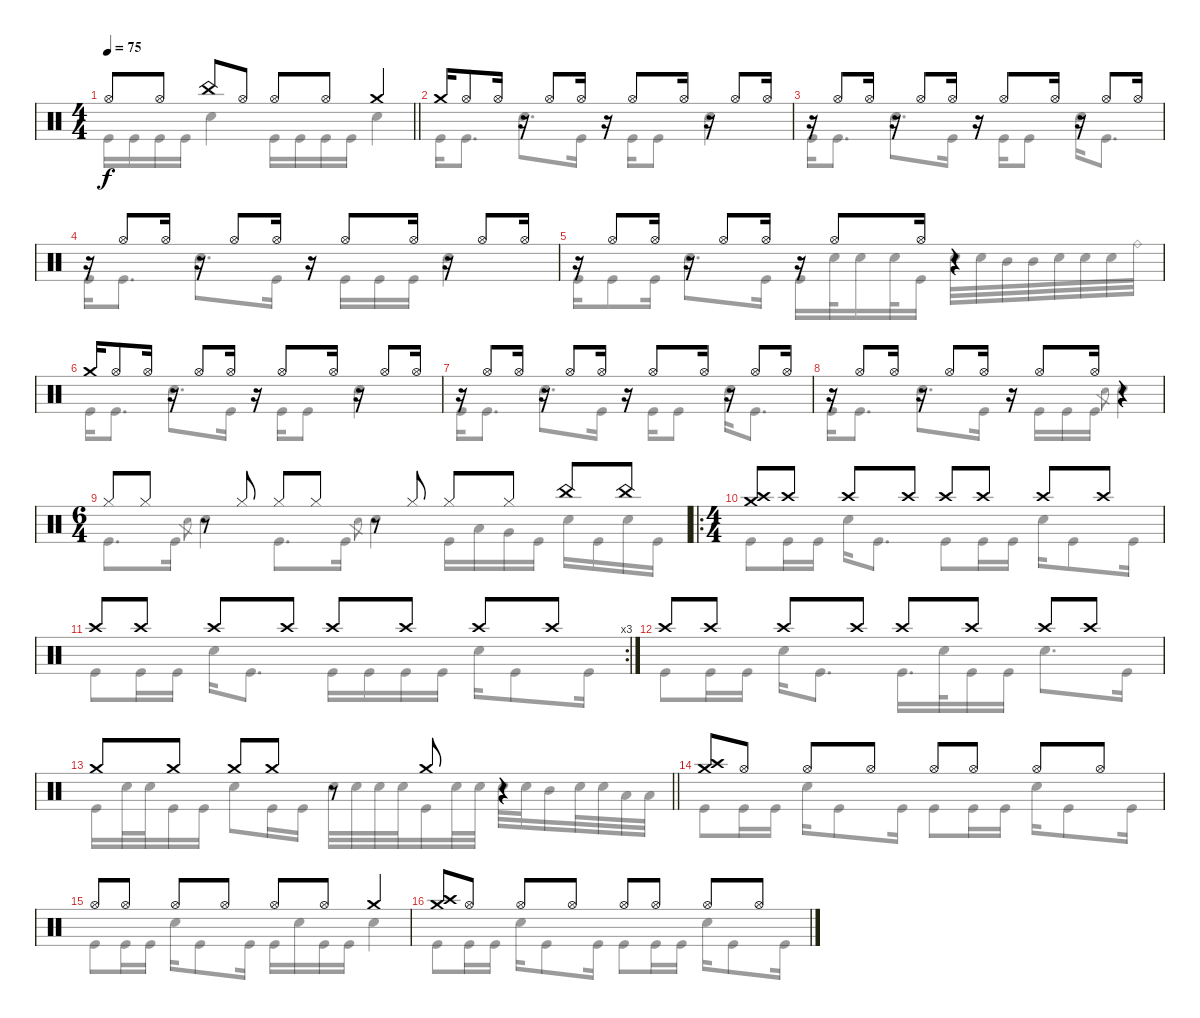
\track "" {instrument percussion}
\staff {score}
\articulation defaults
\voice
\ts (4 4)
\tempo 75
\clef neutral
\barLineRight lightlight
\ks c "Hi-Hat (open)".8{dy f} "Hi-Hat (open)".8 "China (hit)".8 "Hi-Hat (open)".8 "Hi-Hat (open)".8 "Hi-Hat (open)".8 "Crash medium (hit)".4
|
"Crash medium (hit)".16 "Hi-Hat (open)".8 "Hi-Hat (open)".16 r.16 "Hi-Hat (open)".8 "Hi-Hat (open)".16 r.16 "Hi-Hat (open)".8 "Hi-Hat (open)".16 r.16 "Hi-Hat (open)".8 "Hi-Hat (open)".16 |
r.16 "Hi-Hat (open)".8 "Hi-Hat (open)".16 r.16 "Hi-Hat (open)".8 "Hi-Hat (open)".16 r.16 "Hi-Hat (open)".8 "Hi-Hat (open)".16 r.16 "Hi-Hat (open)".8 "Hi-Hat (open)".16 |
r.16 "Hi-Hat (open)".8 "Hi-Hat (open)".16 r.16 "Hi-Hat (open)".8 "Hi-Hat (open)".16 r.16 "Hi-Hat (open)".8 "Hi-Hat (open)".16 r.16 "Hi-Hat (open)".8 "Hi-Hat (open)".16 |
r.16 "Hi-Hat (open)".8 "Hi-Hat (open)".16 r.16 "Hi-Hat (open)".8 "Hi-Hat (open)".16 r.16 "Hi-Hat (open)".8 "Hi-Hat (open)".16 r.4 |
"Crash medium (hit)".16 "Hi-Hat (open)".8 "Hi-Hat (open)".16 r.16 "Hi-Hat (open)".8 "Hi-Hat (open)".16 r.16 "Hi-Hat (open)".8 "Hi-Hat (open)".16 r.16 "Hi-Hat (open)".8 "Hi-Hat (open)".16 |
r.16 "Hi-Hat (open)".8 "Hi-Hat (open)".16 r.16 "Hi-Hat (open)".8 "Hi-Hat (open)".16 r.16 "Hi-Hat (open)".8 "Hi-Hat (open)".16 r.16 "Hi-Hat (open)".8 "Hi-Hat (open)".16 |
r.16 "Hi-Hat (open)".8 "Hi-Hat (open)".16 r.16 "Hi-Hat (open)".8 "Hi-Hat (open)".16 r.16 "Hi-Hat (open)".8 "Hi-Hat (open)".16 r.4 |
\ts (6 4)
"Hi-Hat (closed)".8 "Hi-Hat (closed)".8 r.8 "Hi-Hat (closed)".8{beam split} "Hi-Hat (closed)".8 "Hi-Hat (closed)".8 r.8 "Hi-Hat (closed)".8{beam split} "Hi-Hat (closed)".8 "Hi-Hat (closed)".8{beam split} "China (hit)".8 "China (hit)".8 |
\ro
\ts (4 4)
("Crash high (hit)" "Crash medium (hit)").8 "Crash high (hit)".8 "Crash high (hit)".8 "Crash high (hit)".8 "Crash high (hit)".8 "Crash high (hit)".8 "Crash high (hit)".8 "Crash high (hit)".8 |
\rc 3 "Crash high (hit)".8 "Crash high (hit)".8 "Crash high (hit)".8 "Crash high (hit)".8 "Crash high (hit)".8 "Crash high (hit)".8 "Crash high (hit)".8 "Crash high (hit)".8
|
"Crash high (hit)".8 "Crash high (hit)".8 "Crash high (hit)".8 "Crash high (hit)".8 "Crash high (hit)".8 "Crash high (hit)".8 "Crash high (hit)".8 "Crash high (hit)".8 |
\barLineRight lightlight "Crash medium (hit)".8 "Crash medium (hit)".8 "Crash medium (hit)".8 "Crash medium (hit)".8
r.8 "Crash medium (hit)".8 r.4 |
("Crash medium (hit)" "Crash high (hit)").8 "Hi-Hat (open)".8 "Hi-Hat (open)".8 "Hi-Hat (open)".8 "Hi-Hat (open)".8 "Hi-Hat (open)".8 "Hi-Hat (open)".8 "Hi-Hat (open)".8 |
"Hi-Hat (open)".8 "Hi-Hat (open)".8 "Hi-Hat (open)".8 "Hi-Hat (open)".8 "Hi-Hat (open)".8 "Hi-Hat (open)".8 "Crash medium (hit)".4 |
("Crash medium (hit)" "Crash high (hit)").8 "Hi-Hat (open)".8 "Hi-Hat (open)".8 "Hi-Hat (open)".8 "Hi-Hat (open)".8 "Hi-Hat (open)".8 "Hi-Hat (open)".8 "Hi-Hat (open)".8
\voice
\clef neutral
\ottava regular
\simile none
\barLineRight lightlight
\ks c "Kick (hit)".16{dy f} "Kick (hit)".16 "Kick (hit)".16 "Kick (hit)".16 "Snare (hit) 2".4 "Kick (hit)".16 "Kick (hit)".16 "Kick (hit)".16 "Kick (hit)".16 "Snare (hit) 2".4
|
"Kick (hit)".16 "Kick (hit)".8{d} "Snare (hit) 2".8{d} "Kick (hit)".16 r.16 "Kick (hit)".16 "Kick (hit)".8 "Snare (hit) 2".4 |
"Kick (hit)".16 "Kick (hit)".8{d} "Snare (hit) 2".8{d} "Kick (hit)".16 r.16 "Kick (hit)".16 "Kick (hit)".8 "Snare (hit) 2".16 "Kick (hit)".8{d} |
"Kick (hit)".16 "Kick (hit)".8{d} "Snare (hit) 2".8{d} "Kick (hit)".16 r.16 "Kick (hit)".16 "Kick (hit)".16 "Kick (hit)".16 "Snare (hit) 2".4 |
"Kick (hit)".16 "Kick (hit)".8 "Kick (hit)".16 "Snare (hit) 2".8{d} "Kick (hit)".16 "Kick (hit)".16 "Snare (hit) 2".32 "Snare (hit) 2".16 "Snare (hit) 2".32 "Kick (hit)".16 "Snare (hit) 2".32 "Snare (hit) 2".32 "Mid Tom (hit)".32 "Mid Tom (hit)".32 "Snare (hit) 2".32 "Snare (hit) 2".32 "Snare (hit) 2".32 "Ride (bell)".32 |
"Kick (hit)".16 "Kick (hit)".8{d} "Snare (hit) 2".8{d} "Kick (hit)".16 r.16 "Kick (hit)".16 "Kick (hit)".8 "Snare (hit) 2".4 |
"Kick (hit)".16 "Kick (hit)".8{d} "Snare (hit) 2".8{d} "Kick (hit)".16 r.16 "Kick (hit)".16 "Kick (hit)".8 "Snare (hit) 2".16 "Kick (hit)".8{d} |
"Kick (hit)".16 "Kick (hit)".8{d} "Snare (hit) 2".8{d} "Kick (hit)".16 r.16 "Kick (hit)".16 "Kick (hit)".16 "Kick (hit)".16 "Snare (hit) 2".8{gr} "Snare (hit) 2".4 |
"Kick (hit)".8{d} "Kick (hit)".16 "Snare (hit) 2".8{gr} "Snare (hit) 2".4 "Kick (hit)".8{d} "Kick (hit)".16 "Snare (hit) 2".8{gr} "Snare (hit) 2".4 "Kick (hit)".16 "Low Tom (hit)".16 "Very Low Tom (hit)".16 "Kick (hit)".16{beam split} "Snare (hit) 2".16 "Kick (hit)".16 "Snare (hit) 2".16 "Kick (hit)".16 |
"Kick (hit)".8 "Kick (hit)".16 "Kick (hit)".16 "Snare (hit) 2".16 "Kick (hit)".8{d} "Kick (hit)".8 "Kick (hit)".16 "Kick (hit)".16 "Snare (hit) 2".16 "Kick (hit)".8 "Kick (hit)".16 |
"Kick (hit)".8 "Kick (hit)".16 "Kick (hit)".16 "Snare (hit) 2".16 "Kick (hit)".8{d} "Kick (hit)".16 "Kick (hit)".16 "Kick (hit)".16 "Kick (hit)".16 "Snare (hit) 2".16 "Kick (hit)".8 "Kick (hit)".16 |
"Kick (hit)".8 "Kick (hit)".16 "Kick (hit)".16 "Snare (hit) 2".16 "Kick (hit)".8{d} "Kick (hit)".16{d} "Snare (hit) 2".32 "Kick (hit)".16 "Kick (hit)".16 "Snare (hit) 2".8{d} "Kick (hit)".16 |
\barLineRight lightlight "Kick (hit)".16 "Snare (hit) 2".32 "Snare (hit) 2".32 "Kick (hit)".16 "Kick (hit)".16 "Snare (hit) 2".8 "Kick (hit)".16 "Kick (hit)".16 "Snare (hit) 2".32 "Snare (hit) 2".32 "Snare (hit) 2".32 "Snare (hit) 2".32 "Kick (hit)".16 "Snare (hit) 2".32 "Snare (hit) 2".32 "Snare (hit) 2".32 "Snare (hit) 2".32 "Mid Tom (hit)".16 "Snare (hit) 2".32 "Snare (hit) 2".32 "Low Tom (hit)".32 "Low Tom (hit)".32
|
"Kick (hit)".8 "Kick (hit)".16 "Kick (hit)".16 "Snare (hit) 2".16 "Kick (hit)".8 "Kick (hit)".16 "Kick (hit)".8 "Kick (hit)".16 "Kick (hit)".16 "Snare (hit) 2".16 "Kick (hit)".8 "Kick (hit)".16 |
"Kick (hit)".8 "Kick (hit)".16 "Kick (hit)".16 "Snare (hit) 2".16 "Kick (hit)".8 "Kick (hit)".16 "Kick (hit)".16 "Snare (hit) 2".16 "Kick (hit)".16 "Kick (hit)".16 "Snare (hit) 2".4 |
"Kick (hit)".8 "Kick (hit)".16 "Kick (hit)".16 "Snare (hit) 2".16 "Kick (hit)".8 "Kick (hit)".16 "Kick (hit)".8 "Kick (hit)".16 "Kick (hit)".16 "Snare (hit) 2".16 "Kick (hit)".8 "Kick (hit)".16
